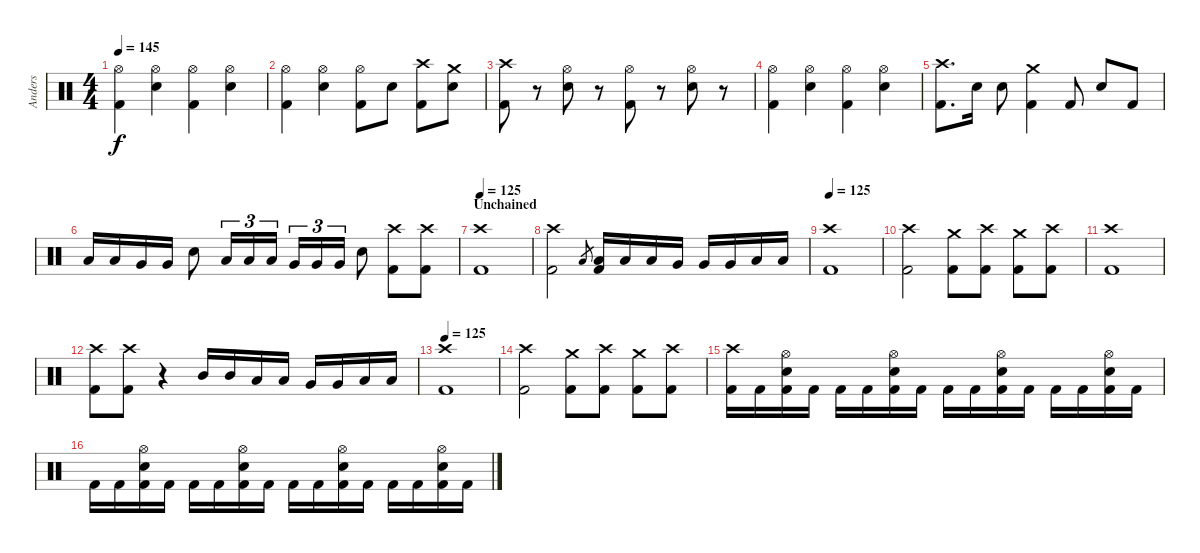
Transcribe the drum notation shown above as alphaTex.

\track ("Anders" "Anders") {instrument percussion}
\staff {score}
\articulation defaults
\ts (4 4)
\tempo 145
\clef neutral
\ks c
("Hi-Hat (open)" "Kick (hit) 2").4{dy f} ("Hi-Hat (open)" "Electric Snare (hit)").4 ("Hi-Hat (open)" "Kick (hit) 2").4 ("Hi-Hat (open)" "Electric Snare (hit)").4 |
("Hi-Hat (open)" "Kick (hit) 2").4 ("Hi-Hat (open)" "Electric Snare (hit)").4 ("Hi-Hat (open)" "Kick (hit) 2").8 "Electric Snare (hit)".8 ("Crash high (hit)" "Kick (hit) 2").8 ("Crash medium (hit)" "Electric Snare (hit)").8 |
("Crash high (hit)" "Kick (hit) 2").8 r.8 ("Hi-Hat (open)" "Electric Snare (hit)").8 r.8 ("Hi-Hat (open)" "Kick (hit) 2").8 r.8 ("Hi-Hat (open)" "Electric Snare (hit)").8 r.8 |
("Hi-Hat (open)" "Kick (hit) 2").4 ("Hi-Hat (open)" "Electric Snare (hit)").4 ("Hi-Hat (open)" "Kick (hit) 2").4 ("Hi-Hat (open)" "Electric Snare (hit)").4 |
("Crash high (hit)" "Kick (hit) 2").8{d} "Electric Snare (hit)".16 "Electric Snare (hit)".8 ("Crash medium (hit)" "Kick (hit) 2").4 "Kick (hit) 2".8 "Electric Snare (hit)".8 "Kick (hit) 2".8 |
"Low Tom (hit)".16 "Low Tom (hit)".16 "Very Low Tom (hit)".16 "Very Low Tom (hit)".16 "Electric Snare (hit)".8 "Low Tom (hit)".16{tu (3 2)} "Low Tom (hit)".16{tu (3 2)} "Low Tom (hit)".16{tu (3 2)} "Very Low Tom (hit)".16{tu (3 2)} "Very Low Tom (hit)".16{tu (3 2)} "Very Low Tom (hit)".16{tu (3 2)} "Electric Snare (hit)".8 ("Crash high (hit)" "Kick (hit) 2").8 ("Crash high (hit)" "Kick (hit) 2").8 |
\section ("" "Unchained")
\tempo 125
("Crash high (hit)" "Kick (hit) 2").1 |
("Crash high (hit)" "Kick (hit) 2").2 "Low Tom (hit)".8{gr} ("Low Tom (hit)" "Kick (hit) 2").16 "Low Tom (hit)".16 "Low Tom (hit)".16 "Very Low Tom (hit)".16 "Very Low Tom (hit)".16 "Very Low Tom (hit)".16 "Low Floor Tom (hit)".16 "Low Floor Tom (hit)".16 |
\tempo 125
("Crash high (hit)" "Kick (hit) 2").1 |
("Crash high (hit)" "Kick (hit) 2").2 ("Crash medium (hit)" "Kick (hit) 2").8 ("Crash high (hit)" "Kick (hit) 2").8 ("Crash medium (hit)" "Kick (hit) 2").8 ("Crash high (hit)" "Kick (hit) 2").8 |
("Crash high (hit)" "Kick (hit) 2").1 |
("Crash high (hit)" "Kick (hit) 2").8 ("Crash high (hit)" "Kick (hit) 2").8 r.4 "Mid Tom (hit)".16 "Mid Tom (hit)".16 "Low Tom (hit)".16 "Low Tom (hit)".16 "Very Low Tom (hit)".16 "Very Low Tom (hit)".16 "Low Floor Tom (hit)".16 "Low Floor Tom (hit)".16 |
\tempo 125
("Crash high (hit)" "Kick (hit) 2").1 |
("Crash high (hit)" "Kick (hit) 2").2 ("Crash medium (hit)" "Kick (hit) 2").8 ("Crash high (hit)" "Kick (hit) 2").8 ("Crash medium (hit)" "Kick (hit) 2").8 ("Crash high (hit)" "Kick (hit) 2").8 |
("Crash high (hit)" "Kick (hit) 2").16 "Kick (hit) 2".16 ("Hi-Hat (open)" "Electric Snare (hit)" "Kick (hit) 2").16 "Kick (hit) 2".16 "Kick (hit) 2".16 "Kick (hit) 2".16 ("Hi-Hat (open)" "Electric Snare (hit)" "Kick (hit) 2").16 "Kick (hit) 2".16 "Kick (hit) 2".16 "Kick (hit) 2".16 ("Hi-Hat (open)" "Electric Snare (hit)" "Kick (hit) 2").16 "Kick (hit) 2".16 "Kick (hit) 2".16 "Kick (hit) 2".16 ("Hi-Hat (open)" "Electric Snare (hit)" "Kick (hit) 2").16 "Kick (hit) 2".16 |
"Kick (hit) 2".16 "Kick (hit) 2".16 ("Hi-Hat (open)" "Electric Snare (hit)" "Kick (hit) 2").16 "Kick (hit) 2".16 "Kick (hit) 2".16 "Kick (hit) 2".16 ("Hi-Hat (open)" "Electric Snare (hit)" "Kick (hit) 2").16 "Kick (hit) 2".16 "Kick (hit) 2".16 "Kick (hit) 2".16 ("Hi-Hat (open)" "Electric Snare (hit)" "Kick (hit) 2").16 "Kick (hit) 2".16 "Kick (hit) 2".16 "Kick (hit) 2".16 ("Hi-Hat (open)" "Electric Snare (hit)" "Kick (hit) 2").16 "Kick (hit) 2".16
